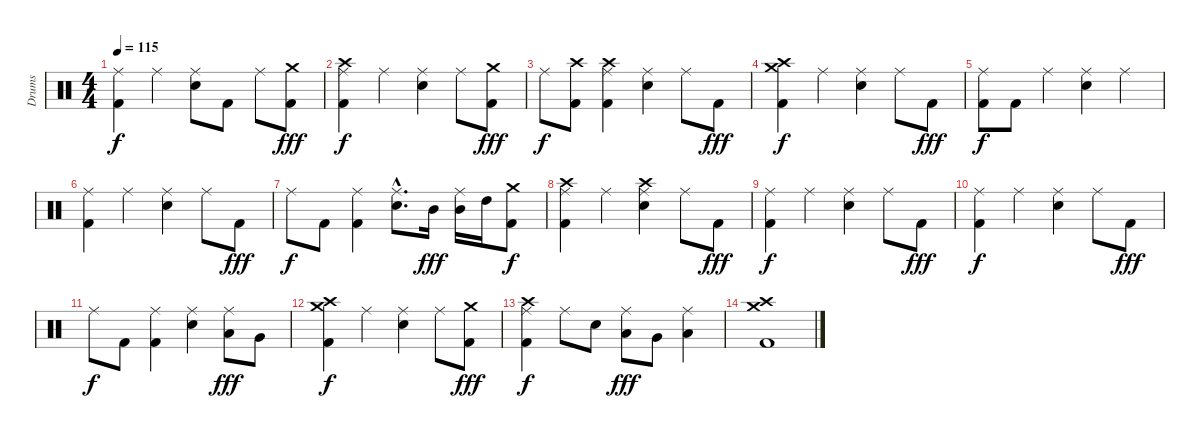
\track ("Drums" "Drums") {instrument percussion}
\staff {score}
\articulation defaults
\ts (4 4)
\tempo 115
\clef neutral
\ks c
("Ride (middle)" "Kick (hit) 2").4{dy f} "Ride (middle)".4 ("Ride (middle)" "Electric Snare (hit)").8 "Kick (hit) 2".8 "Ride (middle)".8 ("Crash medium (hit)" "Kick (hit) 2").8{dy fff} |
("Crash high (hit)" "Ride (middle)" "Kick (hit) 2").4{dy f} "Ride (middle)".4 ("Ride (middle)" "Electric Snare (hit)").4 "Ride (middle)".8 ("Crash medium (hit)" "Kick (hit) 2").8{dy fff} |
"Ride (middle)".8{dy f} ("Crash high (hit)" "Kick (hit) 2").8 ("Crash high (hit)" "Ride (middle)" "Kick (hit) 2").4 ("Ride (middle)" "Electric Snare (hit)").4 "Ride (middle)".8 "Kick (hit) 2".8{dy fff} |
("Crash medium (hit)" "Crash high (hit)" "Kick (hit) 2").4{dy f} "Ride (middle)".4 ("Ride (middle)" "Electric Snare (hit)").4 "Ride (middle)".8 "Kick (hit) 2".8{dy fff} |
("Ride (middle)" "Kick (hit) 2").8{dy f} "Kick (hit) 2".8 "Ride (middle)".4 ("Ride (middle)" "Electric Snare (hit)").4 "Ride (middle)".4 |
("Ride (middle)" "Kick (hit) 2").4 "Ride (middle)".4 ("Ride (middle)" "Electric Snare (hit)").4 "Ride (middle)".8 "Kick (hit) 2".8{dy fff} |
"Ride (middle)".8{dy f} "Kick (hit) 2".8 ("Ride (middle)" "Kick (hit) 2").4 ("Ride (middle)"{hac} "Electric Snare (hit)"{hac}).8{d} "Mid Tom (hit)".16{dy fff} ("Ride (middle)" "Mid Tom (hit)").16 "High Tom (hit)".16 ("Crash medium (hit)" "Kick (hit) 2").8{dy f} |
("Crash high (hit)" "Ride (middle)" "Kick (hit) 2").4 "Ride (middle)".4 ("Crash high (hit)" "Ride (middle)" "Electric Snare (hit)").4 "Ride (middle)".8 "Kick (hit) 2".8{dy fff} |
("Ride (middle)" "Kick (hit) 2").4{dy f} "Ride (middle)".4 ("Ride (middle)" "Electric Snare (hit)").4 "Ride (middle)".8 "Kick (hit) 2".8{dy fff} |
("Ride (middle)" "Kick (hit) 2").4{dy f} "Ride (middle)".4 ("Ride (middle)" "Electric Snare (hit)").4 "Ride (middle)".8 "Kick (hit) 2".8{dy fff} |
"Ride (middle)".8{dy f} "Kick (hit) 2".8 ("Ride (middle)" "Kick (hit) 2").4 ("Ride (middle)" "Electric Snare (hit)").4 ("Ride (middle)" "Low Tom (hit)").8{dy fff} "Very Low Tom (hit)".8 |
("Crash medium (hit)" "Crash high (hit)" "Kick (hit) 2").4{dy f} "Ride (middle)".4 ("Ride (middle)" "Electric Snare (hit)").4 "Ride (middle)".8 ("Crash medium (hit)" "Kick (hit) 2").8{dy fff} |
("Crash high (hit)" "Ride (middle)" "Kick (hit) 2").4{dy f} "Ride (middle)".8 "Electric Snare (hit)".8 ("Ride (middle)" "Low Tom (hit)").8{dy fff} "Very Low Tom (hit)".8 ("Ride (middle)" "Low Floor Tom (hit)").4 |
("Crash medium (hit)" "Crash high (hit)" "Kick (hit) 2").1
